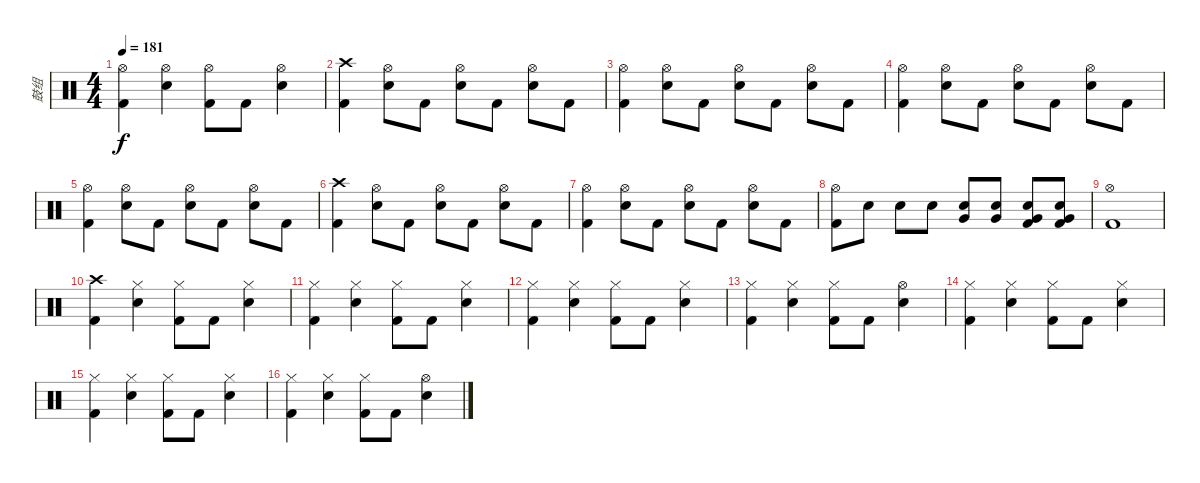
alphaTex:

\track ("鼓组" "鼓组") {instrument percussion}
\staff {score}
\articulation defaults
\ts (4 4)
\tempo 181
\clef neutral
\ks c
("Hi-Hat (open)" "Kick (hit) 2").4{dy f} ("Hi-Hat (open)" "Snare (hit) 2").4 ("Hi-Hat (open)" "Kick (hit) 2").8 "Kick (hit) 2".8 ("Hi-Hat (open)" "Snare (hit) 2").4 |
("Crash high (hit)" "Kick (hit) 2").4 ("Hi-Hat (open)" "Snare (hit) 2").8 "Kick (hit) 2".8 ("Hi-Hat (open)" "Snare (hit) 2").8 "Kick (hit) 2".8 ("Hi-Hat (open)" "Snare (hit) 2").8 "Kick (hit) 2".8 |
("Hi-Hat (open)" "Kick (hit) 2").4 ("Hi-Hat (open)" "Snare (hit) 2").8 "Kick (hit) 2".8 ("Hi-Hat (open)" "Snare (hit) 2").8 "Kick (hit) 2".8 ("Hi-Hat (open)" "Snare (hit) 2").8 "Kick (hit) 2".8 |
("Hi-Hat (open)" "Kick (hit) 2").4 ("Hi-Hat (open)" "Snare (hit) 2").8 "Kick (hit) 2".8 ("Hi-Hat (open)" "Snare (hit) 2").8 "Kick (hit) 2".8 ("Hi-Hat (open)" "Snare (hit) 2").8 "Kick (hit) 2".8 |
("Hi-Hat (open)" "Kick (hit) 2").4 ("Hi-Hat (open)" "Snare (hit) 2").8 "Kick (hit) 2".8 ("Hi-Hat (open)" "Snare (hit) 2").8 "Kick (hit) 2".8 ("Hi-Hat (open)" "Snare (hit) 2").8 "Kick (hit) 2".8 |
("Crash high (hit)" "Kick (hit) 2").4 ("Hi-Hat (open)" "Snare (hit) 2").8 "Kick (hit) 2".8 ("Hi-Hat (open)" "Snare (hit) 2").8 "Kick (hit) 2".8 ("Hi-Hat (open)" "Snare (hit) 2").8 "Kick (hit) 2".8 |
("Hi-Hat (open)" "Kick (hit) 2").4 ("Hi-Hat (open)" "Snare (hit) 2").8 "Kick (hit) 2".8 ("Hi-Hat (open)" "Snare (hit) 2").8 "Kick (hit) 2".8 ("Hi-Hat (open)" "Snare (hit) 2").8 "Kick (hit) 2".8 |
("Hi-Hat (open)" "Kick (hit) 2").8 "Snare (hit) 2".8 "Snare (hit) 2".8 "Snare (hit) 2".8 ("Very Low Tom (hit)" "Snare (hit) 2").8 ("Very Low Tom (hit)" "Snare (hit) 2").8 ("Very Low Tom (hit)" "Snare (hit) 2" "Kick (hit) 2").8 ("Very Low Tom (hit)" "Snare (hit) 2" "Kick (hit) 2").8 |
("Hi-Hat (open)" "Kick (hit) 2").1 |
("Crash high (hit)" "Kick (hit) 2").4 ("Hi-Hat (closed)" "Snare (hit) 2").4 ("Hi-Hat (closed)" "Kick (hit) 2").8 "Kick (hit) 2".8 ("Hi-Hat (closed)" "Snare (hit) 2").4 |
("Hi-Hat (closed)" "Kick (hit) 2").4 ("Hi-Hat (closed)" "Snare (hit) 2").4 ("Hi-Hat (closed)" "Kick (hit) 2").8 "Kick (hit) 2".8 ("Hi-Hat (closed)" "Snare (hit) 2").4 |
("Hi-Hat (closed)" "Kick (hit) 2").4 ("Hi-Hat (closed)" "Snare (hit) 2").4 ("Hi-Hat (closed)" "Kick (hit) 2").8 "Kick (hit) 2".8 ("Hi-Hat (closed)" "Snare (hit) 2").4 |
("Hi-Hat (closed)" "Kick (hit) 2").4 ("Hi-Hat (closed)" "Snare (hit) 2").4 ("Hi-Hat (closed)" "Kick (hit) 2").8 "Kick (hit) 2".8 ("Hi-Hat (open)" "Snare (hit) 2").4 |
("Hi-Hat (closed)" "Kick (hit) 2").4 ("Hi-Hat (closed)" "Snare (hit) 2").4 ("Hi-Hat (closed)" "Kick (hit) 2").8 "Kick (hit) 2".8 ("Hi-Hat (closed)" "Snare (hit) 2").4 |
("Hi-Hat (closed)" "Kick (hit) 2").4 ("Hi-Hat (closed)" "Snare (hit) 2").4 ("Hi-Hat (closed)" "Kick (hit) 2").8 "Kick (hit) 2".8 ("Hi-Hat (closed)" "Snare (hit) 2").4 |
("Hi-Hat (closed)" "Kick (hit) 2").4 ("Hi-Hat (closed)" "Snare (hit) 2").4 ("Hi-Hat (closed)" "Kick (hit) 2").8 "Kick (hit) 2".8 ("Hi-Hat (open)" "Snare (hit) 2").4
